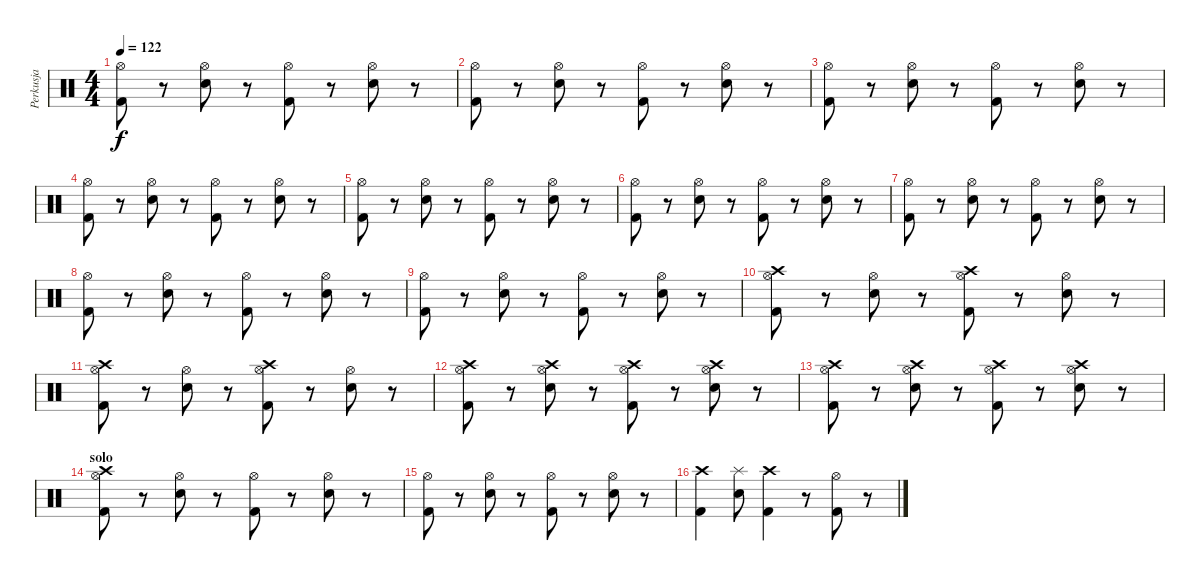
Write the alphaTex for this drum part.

\track ("Perkusja" "Perkusja") {instrument percussion}
\staff {score}
\articulation defaults
\ts (4 4)
\tempo 122
\clef neutral
\ks c
("Kick (hit) 2" "Hi-Hat (open)").8{dy f} r.8 ("Snare (hit) 2" "Hi-Hat (open)").8 r.8 ("Kick (hit) 2" "Hi-Hat (open)").8 r.8 ("Snare (hit) 2" "Hi-Hat (open)").8 r.8 |
("Kick (hit) 2" "Hi-Hat (open)").8 r.8 ("Snare (hit) 2" "Hi-Hat (open)").8 r.8 ("Kick (hit) 2" "Hi-Hat (open)").8 r.8 ("Snare (hit) 2" "Hi-Hat (open)").8 r.8 |
("Kick (hit) 2" "Hi-Hat (open)").8 r.8 ("Snare (hit) 2" "Hi-Hat (open)").8 r.8 ("Kick (hit) 2" "Hi-Hat (open)").8 r.8 ("Snare (hit) 2" "Hi-Hat (open)").8 r.8 |
("Kick (hit) 2" "Hi-Hat (open)").8 r.8 ("Snare (hit) 2" "Hi-Hat (open)").8 r.8 ("Kick (hit) 2" "Hi-Hat (open)").8 r.8 ("Snare (hit) 2" "Hi-Hat (open)").8 r.8 |
("Kick (hit) 2" "Hi-Hat (open)").8 r.8 ("Snare (hit) 2" "Hi-Hat (open)").8 r.8 ("Kick (hit) 2" "Hi-Hat (open)").8 r.8 ("Snare (hit) 2" "Hi-Hat (open)").8 r.8 |
("Kick (hit) 2" "Hi-Hat (open)").8 r.8 ("Snare (hit) 2" "Hi-Hat (open)").8 r.8 ("Kick (hit) 2" "Hi-Hat (open)").8 r.8 ("Snare (hit) 2" "Hi-Hat (open)").8 r.8 |
("Kick (hit) 2" "Hi-Hat (open)").8 r.8 ("Snare (hit) 2" "Hi-Hat (open)").8 r.8 ("Kick (hit) 2" "Hi-Hat (open)").8 r.8 ("Snare (hit) 2" "Hi-Hat (open)").8 r.8 |
("Kick (hit) 2" "Hi-Hat (open)").8 r.8 ("Snare (hit) 2" "Hi-Hat (open)").8 r.8 ("Kick (hit) 2" "Hi-Hat (open)").8 r.8 ("Snare (hit) 2" "Hi-Hat (open)").8 r.8 |
("Kick (hit) 2" "Hi-Hat (open)").8 r.8 ("Snare (hit) 2" "Hi-Hat (open)").8 r.8 ("Kick (hit) 2" "Hi-Hat (open)").8 r.8 ("Snare (hit) 2" "Hi-Hat (open)").8 r.8 |
("Kick (hit) 2" "Hi-Hat (open)" "Crash high (hit)").8 r.8 ("Snare (hit) 2" "Hi-Hat (open)").8 r.8 ("Kick (hit) 2" "Hi-Hat (open)" "Crash high (hit)").8 r.8 ("Snare (hit) 2" "Hi-Hat (open)").8 r.8 |
("Kick (hit) 2" "Hi-Hat (open)" "Crash high (hit)").8 r.8 ("Snare (hit) 2" "Hi-Hat (open)").8 r.8 ("Kick (hit) 2" "Hi-Hat (open)" "Crash high (hit)").8 r.8 ("Snare (hit) 2" "Hi-Hat (open)").8 r.8 |
("Kick (hit) 2" "Hi-Hat (open)" "Crash high (hit)").8 r.8 ("Snare (hit) 2" "Hi-Hat (open)" "Crash high (hit)").8 r.8 ("Kick (hit) 2" "Hi-Hat (open)" "Crash high (hit)").8 r.8 ("Snare (hit) 2" "Hi-Hat (open)" "Crash high (hit)").8 r.8 |
("Kick (hit) 2" "Hi-Hat (open)" "Crash high (hit)").8 r.8 ("Snare (hit) 2" "Hi-Hat (open)" "Crash high (hit)").8 r.8 ("Kick (hit) 2" "Hi-Hat (open)" "Crash high (hit)").8 r.8 ("Snare (hit) 2" "Hi-Hat (open)" "Crash high (hit)").8 r.8 |
\section ("" "solo")
("Kick (hit) 2" "Hi-Hat (open)" "Crash high (hit)").8 r.8 ("Snare (hit) 2" "Hi-Hat (open)").8 r.8 ("Kick (hit) 2" "Hi-Hat (open)").8 r.8 ("Snare (hit) 2" "Hi-Hat (open)").8 r.8 |
("Kick (hit) 2" "Hi-Hat (open)").8 r.8 ("Snare (hit) 2" "Hi-Hat (open)").8 r.8 ("Kick (hit) 2" "Hi-Hat (open)").8 r.8 ("Snare (hit) 2" "Hi-Hat (open)").8 r.8 |
("Kick (hit) 2" "Crash high (hit)").4 ("Snare (hit) 2" "Splash (hit)").8 ("Kick (hit) 2" "Crash high (hit)").4 r.8 ("Hi-Hat (open)" "Kick (hit) 2").8 r.8
